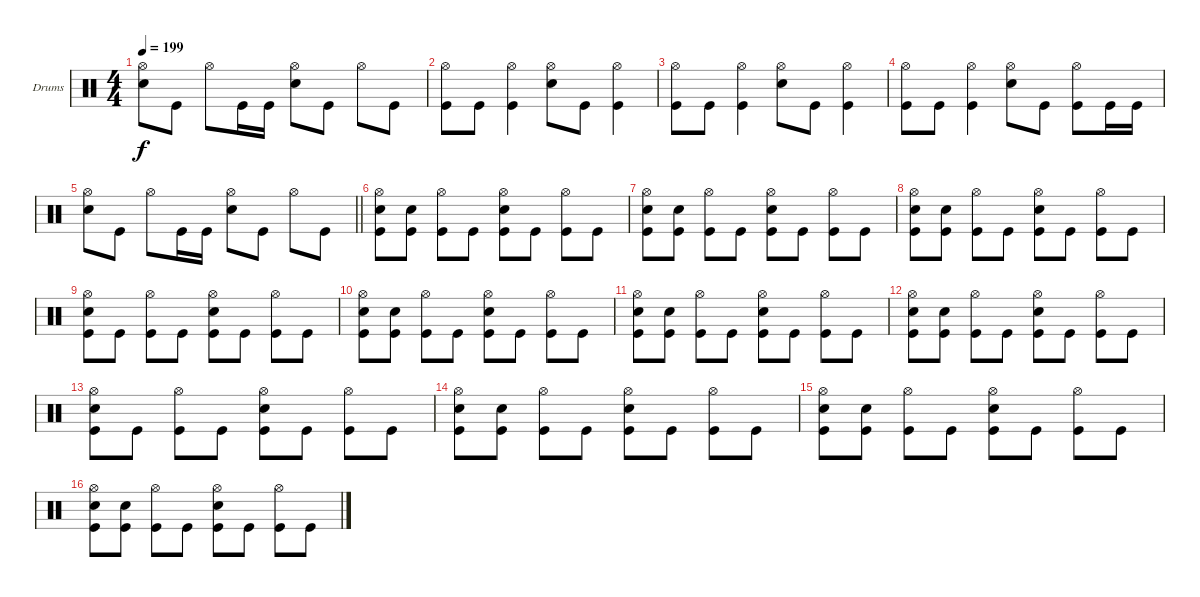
\bracketExtendMode groupsimilarinstruments
\firstSystemTrackNameOrientation horizontal
\otherSystemsTrackNameOrientation horizontal
\track ("Drumkit" "Drums") {instrument percussion}
\staff {score}
\articulation defaults
\ts (4 4)
\tempo 199
\clef neutral
\ks c
("Hi-Hat (open)" "Snare (hit) 2").8{dy f} "Kick (hit)".8 "Hi-Hat (open)".8 "Kick (hit)".16 "Kick (hit)".16 ("Hi-Hat (open)" "Snare (hit) 2").8 "Kick (hit)".8 "Hi-Hat (open)".8 "Kick (hit)".8 |
("Hi-Hat (open)" "Kick (hit)").8 "Kick (hit)".8 ("Hi-Hat (open)" "Kick (hit)").4 ("Hi-Hat (open)" "Snare (hit) 2").8 "Kick (hit)".8 ("Hi-Hat (open)" "Kick (hit)").4 |
("Hi-Hat (open)" "Kick (hit)").8 "Kick (hit)".8 ("Hi-Hat (open)" "Kick (hit)").4 ("Hi-Hat (open)" "Snare (hit) 2").8 "Kick (hit)".8 ("Hi-Hat (open)" "Kick (hit)").4 |
("Hi-Hat (open)" "Kick (hit)").8 "Kick (hit)".8 ("Hi-Hat (open)" "Kick (hit)").4 ("Hi-Hat (open)" "Snare (hit) 2").8 "Kick (hit)".8 ("Hi-Hat (open)" "Kick (hit)").8 "Kick (hit)".16 "Kick (hit)".16 |
\barLineRight lightlight
("Hi-Hat (open)" "Snare (hit) 2").8 "Kick (hit)".8 "Hi-Hat (open)".8 "Kick (hit)".16 "Kick (hit)".16 ("Hi-Hat (open)" "Snare (hit) 2").8 "Kick (hit)".8 "Hi-Hat (open)".8 "Kick (hit)".8 |
("Hi-Hat (open)" "Kick (hit)" "Snare (hit) 2").8 ("Kick (hit)" "Snare (hit) 2").8 ("Hi-Hat (open)" "Kick (hit)").8 "Kick (hit)".8 ("Hi-Hat (open)" "Kick (hit)" "Snare (hit) 2").8 "Kick (hit)".8 ("Hi-Hat (open)" "Kick (hit)").8 "Kick (hit)".8 |
("Hi-Hat (open)" "Kick (hit)" "Snare (hit) 2").8 ("Kick (hit)" "Snare (hit) 2").8 ("Hi-Hat (open)" "Kick (hit)").8 "Kick (hit)".8 ("Hi-Hat (open)" "Kick (hit)" "Snare (hit) 2").8 "Kick (hit)".8 ("Hi-Hat (open)" "Kick (hit)").8 "Kick (hit)".8 |
("Hi-Hat (open)" "Kick (hit)" "Snare (hit) 2").8 ("Kick (hit)" "Snare (hit) 2").8 ("Hi-Hat (open)" "Kick (hit)").8 "Kick (hit)".8 ("Hi-Hat (open)" "Kick (hit)" "Snare (hit) 2").8 "Kick (hit)".8 ("Hi-Hat (open)" "Kick (hit)").8 "Kick (hit)".8 |
("Hi-Hat (open)" "Kick (hit)" "Snare (hit) 2").8 "Kick (hit)".8 ("Hi-Hat (open)" "Kick (hit)").8 "Kick (hit)".8 ("Hi-Hat (open)" "Kick (hit)" "Snare (hit) 2").8 "Kick (hit)".8 ("Hi-Hat (open)" "Kick (hit)").8 "Kick (hit)".8 |
("Hi-Hat (open)" "Kick (hit)" "Snare (hit) 2").8 ("Kick (hit)" "Snare (hit) 2").8 ("Hi-Hat (open)" "Kick (hit)").8 "Kick (hit)".8 ("Hi-Hat (open)" "Kick (hit)" "Snare (hit) 2").8 "Kick (hit)".8 ("Hi-Hat (open)" "Kick (hit)").8 "Kick (hit)".8 |
("Hi-Hat (open)" "Kick (hit)" "Snare (hit) 2").8 ("Kick (hit)" "Snare (hit) 2").8 ("Hi-Hat (open)" "Kick (hit)").8 "Kick (hit)".8 ("Hi-Hat (open)" "Kick (hit)" "Snare (hit) 2").8 "Kick (hit)".8 ("Hi-Hat (open)" "Kick (hit)").8 "Kick (hit)".8 |
("Hi-Hat (open)" "Kick (hit)" "Snare (hit) 2").8 ("Kick (hit)" "Snare (hit) 2").8 ("Hi-Hat (open)" "Kick (hit)").8 "Kick (hit)".8 ("Hi-Hat (open)" "Kick (hit)" "Snare (hit) 2").8 "Kick (hit)".8 ("Hi-Hat (open)" "Kick (hit)").8 "Kick (hit)".8 |
("Hi-Hat (open)" "Kick (hit)" "Snare (hit) 2").8 "Kick (hit)".8 ("Hi-Hat (open)" "Kick (hit)").8 "Kick (hit)".8 ("Hi-Hat (open)" "Kick (hit)" "Snare (hit) 2").8 "Kick (hit)".8 ("Hi-Hat (open)" "Kick (hit)").8 "Kick (hit)".8 |
("Hi-Hat (open)" "Kick (hit)" "Snare (hit) 2").8 ("Kick (hit)" "Snare (hit) 2").8 ("Hi-Hat (open)" "Kick (hit)").8 "Kick (hit)".8 ("Hi-Hat (open)" "Kick (hit)" "Snare (hit) 2").8 "Kick (hit)".8 ("Hi-Hat (open)" "Kick (hit)").8 "Kick (hit)".8 |
("Hi-Hat (open)" "Kick (hit)" "Snare (hit) 2").8 ("Kick (hit)" "Snare (hit) 2").8 ("Hi-Hat (open)" "Kick (hit)").8 "Kick (hit)".8 ("Hi-Hat (open)" "Kick (hit)" "Snare (hit) 2").8 "Kick (hit)".8 ("Hi-Hat (open)" "Kick (hit)").8 "Kick (hit)".8 |
("Hi-Hat (open)" "Kick (hit)" "Snare (hit) 2").8 ("Kick (hit)" "Snare (hit) 2").8 ("Hi-Hat (open)" "Kick (hit)").8 "Kick (hit)".8 ("Hi-Hat (open)" "Kick (hit)" "Snare (hit) 2").8 "Kick (hit)".8 ("Hi-Hat (open)" "Kick (hit)").8 "Kick (hit)".8
